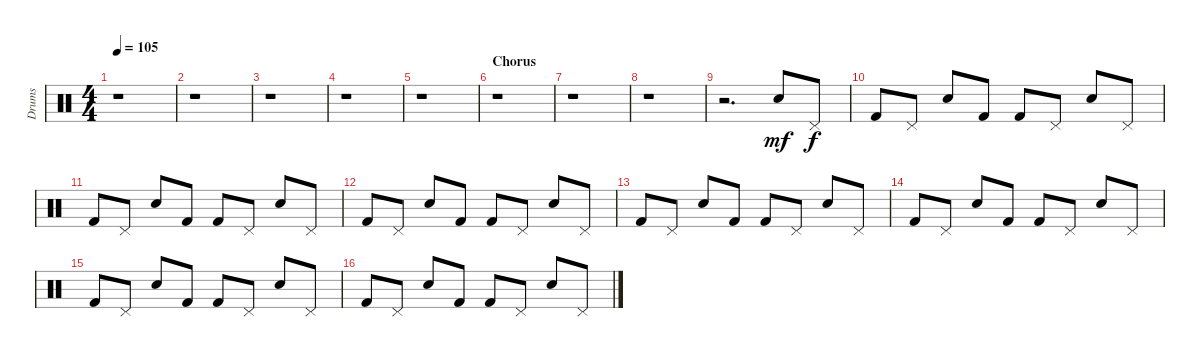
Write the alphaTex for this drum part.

\track ("Drums" "Drums") {instrument percussion}
\staff {score}
\articulation defaults
\ts (4 4)
\tempo 105
\clef neutral
\ks c
r.1{dy f} |
r.1 |
r.1 |
r.1 |
r.1 |
\section ("" "Chorus")
r.1 |
r.1 |
r.1 |
r.2{d} "Electric Snare (hit)".8{dy mf} "Pedal Hi-Hat (hit)".8{dy f} |
"Kick (hit) 2".8 "Pedal Hi-Hat (hit)".8 "Electric Snare (hit)".8 "Kick (hit) 2".8 "Kick (hit) 2".8 "Pedal Hi-Hat (hit)".8 "Electric Snare (hit)".8 "Pedal Hi-Hat (hit)".8 |
"Kick (hit) 2".8 "Pedal Hi-Hat (hit)".8 "Electric Snare (hit)".8 "Kick (hit) 2".8 "Kick (hit) 2".8 "Pedal Hi-Hat (hit)".8 "Electric Snare (hit)".8 "Pedal Hi-Hat (hit)".8 |
"Kick (hit) 2".8 "Pedal Hi-Hat (hit)".8 "Electric Snare (hit)".8 "Kick (hit) 2".8 "Kick (hit) 2".8 "Pedal Hi-Hat (hit)".8 "Electric Snare (hit)".8 "Pedal Hi-Hat (hit)".8 |
"Kick (hit) 2".8 "Pedal Hi-Hat (hit)".8 "Electric Snare (hit)".8 "Kick (hit) 2".8 "Kick (hit) 2".8 "Pedal Hi-Hat (hit)".8 "Electric Snare (hit)".8 "Pedal Hi-Hat (hit)".8 |
"Kick (hit) 2".8 "Pedal Hi-Hat (hit)".8 "Electric Snare (hit)".8 "Kick (hit) 2".8 "Kick (hit) 2".8 "Pedal Hi-Hat (hit)".8 "Electric Snare (hit)".8 "Pedal Hi-Hat (hit)".8 |
"Kick (hit) 2".8 "Pedal Hi-Hat (hit)".8 "Electric Snare (hit)".8 "Kick (hit) 2".8 "Kick (hit) 2".8 "Pedal Hi-Hat (hit)".8 "Electric Snare (hit)".8 "Pedal Hi-Hat (hit)".8 |
"Kick (hit) 2".8 "Pedal Hi-Hat (hit)".8 "Electric Snare (hit)".8 "Kick (hit) 2".8 "Kick (hit) 2".8 "Pedal Hi-Hat (hit)".8 "Electric Snare (hit)".8 "Pedal Hi-Hat (hit)".8
